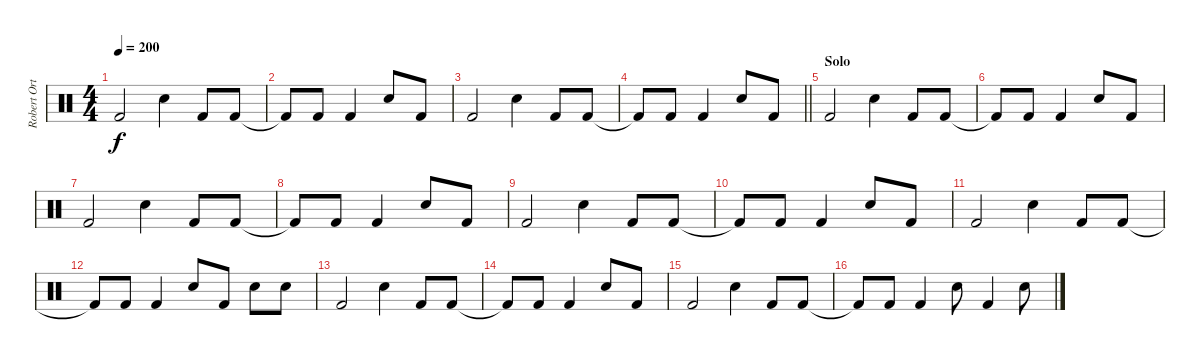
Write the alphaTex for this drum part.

\track ("Robert Ortiz" "Robert Ort") {instrument percussion}
\staff {score}
\articulation defaults
\ts (4 4)
\tempo 200
\clef neutral
\ks c "Kick (hit) 2".2{dy f} "Electric Snare (hit)".4 "Kick (hit) 2".8 "Kick (hit) 2".8
|
"Kick (hit) 2"{t}.8 "Kick (hit) 2".8 "Kick (hit) 2".4 "Electric Snare (hit)".8 "Kick (hit) 2".8 |
"Kick (hit) 2".2 "Electric Snare (hit)".4 "Kick (hit) 2".8 "Kick (hit) 2".8 |
\barLineRight lightlight "Kick (hit) 2"{t}.8 "Kick (hit) 2".8 "Kick (hit) 2".4 "Electric Snare (hit)".8 "Kick (hit) 2".8
|
\section ("" "Solo")
"Kick (hit) 2".2 "Electric Snare (hit)".4 "Kick (hit) 2".8 "Kick (hit) 2".8 |
"Kick (hit) 2"{t}.8 "Kick (hit) 2".8 "Kick (hit) 2".4 "Electric Snare (hit)".8 "Kick (hit) 2".8 |
"Kick (hit) 2".2 "Electric Snare (hit)".4 "Kick (hit) 2".8 "Kick (hit) 2".8 |
"Kick (hit) 2"{t}.8 "Kick (hit) 2".8 "Kick (hit) 2".4 "Electric Snare (hit)".8 "Kick (hit) 2".8 |
"Kick (hit) 2".2 "Electric Snare (hit)".4 "Kick (hit) 2".8 "Kick (hit) 2".8 |
"Kick (hit) 2"{t}.8 "Kick (hit) 2".8 "Kick (hit) 2".4 "Electric Snare (hit)".8 "Kick (hit) 2".8 |
"Kick (hit) 2".2 "Electric Snare (hit)".4 "Kick (hit) 2".8 "Kick (hit) 2".8 |
"Kick (hit) 2"{t}.8 "Kick (hit) 2".8 "Kick (hit) 2".4 "Electric Snare (hit)".8 "Kick (hit) 2".8 "Electric Snare (hit)".8 "Electric Snare (hit)".8 |
"Kick (hit) 2".2 "Electric Snare (hit)".4 "Kick (hit) 2".8 "Kick (hit) 2".8 |
"Kick (hit) 2"{t}.8 "Kick (hit) 2".8 "Kick (hit) 2".4 "Electric Snare (hit)".8 "Kick (hit) 2".8 |
"Kick (hit) 2".2 "Electric Snare (hit)".4 "Kick (hit) 2".8 "Kick (hit) 2".8 |
"Kick (hit) 2"{t}.8 "Kick (hit) 2".8 "Kick (hit) 2".4 "Electric Snare (hit)".8 "Kick (hit) 2".4 "Electric Snare (hit)".8
